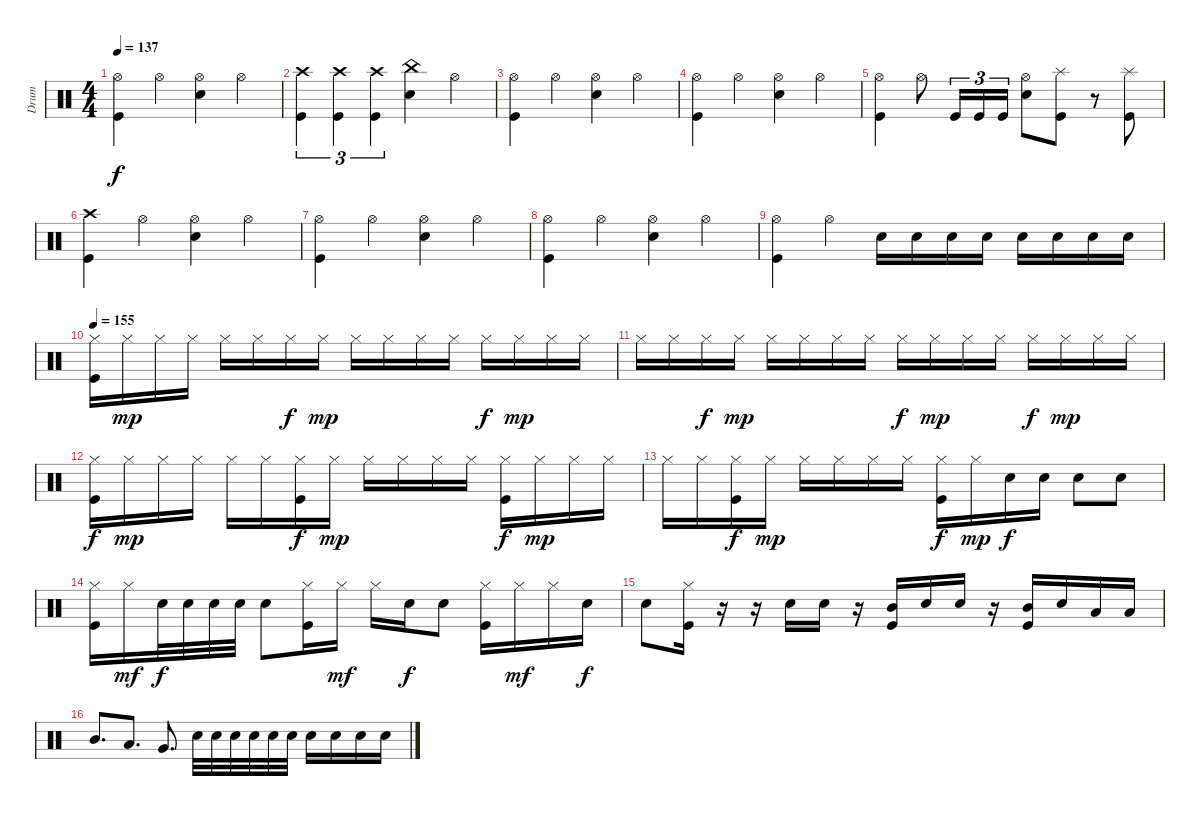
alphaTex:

\track ("Drum" "Drum") {instrument percussion}
\staff {score}
\articulation defaults
\ts (4 4)
\tempo 137
\clef neutral
\ks c
("Kick (hit)" "Hi-Hat (open)").4{dy f} "Hi-Hat (open)".4 ("Electric Snare (hit)" "Hi-Hat (open)").4 "Hi-Hat (open)".4 |
("Kick (hit)" "Crash high (hit)").4{tu (3 2)} ("Kick (hit)" "Crash high (hit)").4{tu (3 2)} ("Kick (hit)" "Crash high (hit)").4{tu (3 2)} ("Electric Snare (hit)" "China (hit)").4 "Hi-Hat (open)".4 |
("Kick (hit)" "Hi-Hat (open)").4 "Hi-Hat (open)".4 ("Electric Snare (hit)" "Hi-Hat (open)").4 "Hi-Hat (open)".4 |
("Kick (hit)" "Hi-Hat (open)").4 "Hi-Hat (open)".4 ("Electric Snare (hit)" "Hi-Hat (open)").4 "Hi-Hat (open)".4 |
("Kick (hit)" "Hi-Hat (open)").4 "Hi-Hat (open)".8 "Kick (hit)".16{tu (3 2)} "Kick (hit)".16{tu (3 2)} "Kick (hit)".16{tu (3 2)} ("Electric Snare (hit)" "Hi-Hat (open)").8 ("Kick (hit)" "Splash (hit)").8 r.8 ("Kick (hit)" "Splash (hit)").8 |
("Kick (hit)" "Crash high (hit)").4 "Hi-Hat (open)".4 ("Electric Snare (hit)" "Hi-Hat (open)").4 "Hi-Hat (open)".4 |
("Kick (hit)" "Hi-Hat (open)").4 "Hi-Hat (open)".4 ("Electric Snare (hit)" "Hi-Hat (open)").4 "Hi-Hat (open)".4 |
("Kick (hit)" "Hi-Hat (open)").4 "Hi-Hat (open)".4 ("Electric Snare (hit)" "Hi-Hat (open)").4 "Hi-Hat (open)".4 |
("Kick (hit)" "Hi-Hat (open)").4 "Hi-Hat (open)".4 "Electric Snare (hit)".16 "Electric Snare (hit)".16 "Electric Snare (hit)".16 "Electric Snare (hit)".16 "Electric Snare (hit)".16 "Electric Snare (hit)".16 "Electric Snare (hit)".16 "Electric Snare (hit)".16 |
\tempo 155
("Kick (hit)" "Hi-Hat (closed)").16 "Hi-Hat (closed)".16{dy mp} "Hi-Hat (closed)".16 "Hi-Hat (closed)".16 "Hi-Hat (closed)".16 "Hi-Hat (closed)".16 "Hi-Hat (closed)".16{dy f} "Hi-Hat (closed)".16{dy mp} "Hi-Hat (closed)".16 "Hi-Hat (closed)".16 "Hi-Hat (closed)".16 "Hi-Hat (closed)".16 "Hi-Hat (closed)".16{dy f} "Hi-Hat (closed)".16{dy mp} "Hi-Hat (closed)".16 "Hi-Hat (closed)".16 |
"Hi-Hat (closed)".16 "Hi-Hat (closed)".16 "Hi-Hat (closed)".16{dy f} "Hi-Hat (closed)".16{dy mp} "Hi-Hat (closed)".16 "Hi-Hat (closed)".16 "Hi-Hat (closed)".16 "Hi-Hat (closed)".16 "Hi-Hat (closed)".16{dy f} "Hi-Hat (closed)".16{dy mp} "Hi-Hat (closed)".16 "Hi-Hat (closed)".16 "Hi-Hat (closed)".16{dy f} "Hi-Hat (closed)".16{dy mp} "Hi-Hat (closed)".16 "Hi-Hat (closed)".16 |
("Kick (hit)" "Hi-Hat (closed)").16{dy f} "Hi-Hat (closed)".16{dy mp} "Hi-Hat (closed)".16 "Hi-Hat (closed)".16 "Hi-Hat (closed)".16 "Hi-Hat (closed)".16 ("Kick (hit)" "Hi-Hat (closed)").16{dy f} "Hi-Hat (closed)".16{dy mp} "Hi-Hat (closed)".16 "Hi-Hat (closed)".16 "Hi-Hat (closed)".16 "Hi-Hat (closed)".16 ("Kick (hit)" "Hi-Hat (closed)").16{dy f} "Hi-Hat (closed)".16{dy mp} "Hi-Hat (closed)".16 "Hi-Hat (closed)".16 |
"Hi-Hat (closed)".16 "Hi-Hat (closed)".16 ("Kick (hit)" "Hi-Hat (closed)").16{dy f} "Hi-Hat (closed)".16{dy mp} "Hi-Hat (closed)".16 "Hi-Hat (closed)".16 "Hi-Hat (closed)".16 "Hi-Hat (closed)".16 ("Kick (hit)" "Hi-Hat (closed)").16{dy f} "Hi-Hat (closed)".16{dy mp} "Electric Snare (hit)".16{dy f} "Electric Snare (hit)".16 "Electric Snare (hit)".8 "Electric Snare (hit)".8 |
("Kick (hit)" "Hi-Hat (closed)").16 "Hi-Hat (closed)".16{dy mf} "Electric Snare (hit)".32{dy f} "Electric Snare (hit)".32 "Electric Snare (hit)".32 "Electric Snare (hit)".32 "Electric Snare (hit)".8 ("Kick (hit)" "Hi-Hat (closed)").16 "Hi-Hat (closed)".16{dy mf} "Hi-Hat (closed)".16 "Electric Snare (hit)".16{dy f} "Electric Snare (hit)".8 ("Kick (hit)" "Hi-Hat (closed)").16 "Hi-Hat (closed)".16{dy mf} "Hi-Hat (closed)".16 "Electric Snare (hit)".16{dy f} |
"Electric Snare (hit)".8 ("Kick (hit)" "Hi-Hat (closed)").16 r.16 r.16 "Electric Snare (hit)".16 "Electric Snare (hit)".16 r.16 ("Kick (hit)" "Mid Tom (hit)").16 "Electric Snare (hit)".16 "Electric Snare (hit)".16 r.16 ("Kick (hit)" "Mid Tom (hit)").16 "Electric Snare (hit)".16 "Low Tom (hit)".16 "Low Tom (hit)".16 |
"Mid Tom (hit)".8{d} "Low Tom (hit)".8{d} "Very Low Tom (hit)".8{d} "Electric Snare (hit)".32 "Electric Snare (hit)".32 "Electric Snare (hit)".32 "Electric Snare (hit)".32 "Electric Snare (hit)".32 "Electric Snare (hit)".32 "Electric Snare (hit)".16 "Electric Snare (hit)".16 "Electric Snare (hit)".16 "Electric Snare (hit)".16
